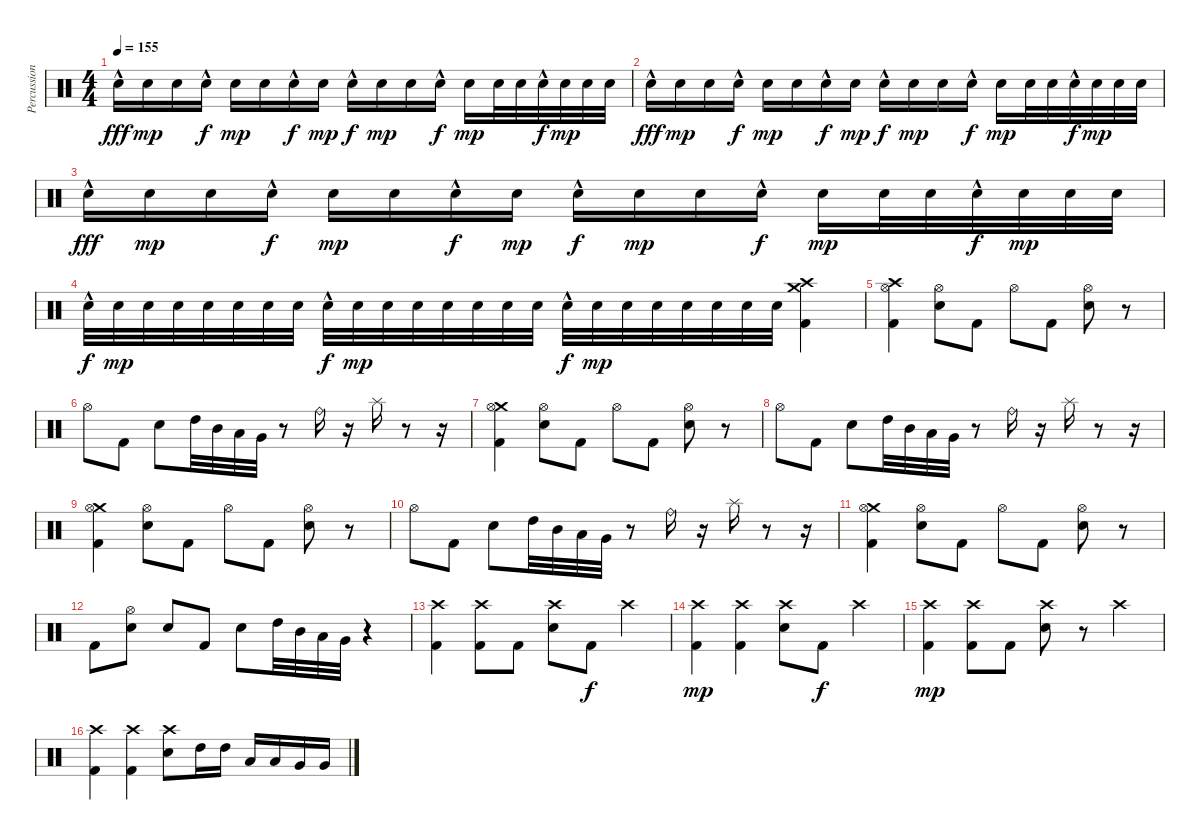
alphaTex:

\track ("Percussion" "Percussion") {instrument percussion}
\staff {score}
\articulation defaults
\ts (4 4)
\tempo 155
\clef neutral
\ks c "Snare (hit) 2"{hac}.16{dy fff} "Snare (hit) 2".16{dy mp} "Snare (hit) 2".16 "Snare (hit) 2"{hac}.16{dy f} "Snare (hit) 2".16{dy mp} "Snare (hit) 2".16 "Snare (hit) 2"{hac}.16{dy f} "Snare (hit) 2".16{dy mp} "Snare (hit) 2"{hac}.16{dy f} "Snare (hit) 2".16{dy mp} "Snare (hit) 2".16 "Snare (hit) 2"{hac}.16{dy f} "Snare (hit) 2".16{dy mp} "Snare (hit) 2".32 "Snare (hit) 2".32 "Snare (hit) 2"{hac}.32{dy f} "Snare (hit) 2".32{dy mp} "Snare (hit) 2".32 "Snare (hit) 2".32
|
"Snare (hit) 2"{hac}.16{dy fff} "Snare (hit) 2".16{dy mp} "Snare (hit) 2".16 "Snare (hit) 2"{hac}.16{dy f} "Snare (hit) 2".16{dy mp} "Snare (hit) 2".16 "Snare (hit) 2"{hac}.16{dy f} "Snare (hit) 2".16{dy mp} "Snare (hit) 2"{hac}.16{dy f} "Snare (hit) 2".16{dy mp} "Snare (hit) 2".16 "Snare (hit) 2"{hac}.16{dy f} "Snare (hit) 2".16{dy mp} "Snare (hit) 2".32 "Snare (hit) 2".32 "Snare (hit) 2"{hac}.32{dy f} "Snare (hit) 2".32{dy mp} "Snare (hit) 2".32 "Snare (hit) 2".32 |
"Snare (hit) 2"{hac}.16{dy fff} "Snare (hit) 2".16{dy mp} "Snare (hit) 2".16 "Snare (hit) 2"{hac}.16{dy f} "Snare (hit) 2".16{dy mp} "Snare (hit) 2".16 "Snare (hit) 2"{hac}.16{dy f} "Snare (hit) 2".16{dy mp} "Snare (hit) 2"{hac}.16{dy f} "Snare (hit) 2".16{dy mp} "Snare (hit) 2".16 "Snare (hit) 2"{hac}.16{dy f} "Snare (hit) 2".16{dy mp} "Snare (hit) 2".32 "Snare (hit) 2".32 "Snare (hit) 2"{hac}.32{dy f} "Snare (hit) 2".32{dy mp} "Snare (hit) 2".32 "Snare (hit) 2".32 |
"Snare (hit) 2"{hac}.32{dy f} "Snare (hit) 2".32{dy mp} "Snare (hit) 2".32 "Snare (hit) 2".32 "Snare (hit) 2".32 "Snare (hit) 2".32 "Snare (hit) 2".32 "Snare (hit) 2".32 "Snare (hit) 2"{hac}.32{dy f} "Snare (hit) 2".32{dy mp} "Snare (hit) 2".32 "Snare (hit) 2".32 "Snare (hit) 2".32 "Snare (hit) 2".32 "Snare (hit) 2".32 "Snare (hit) 2".32 "Snare (hit) 2"{hac}.32{dy f} "Snare (hit) 2".32{dy mp} "Snare (hit) 2".32 "Snare (hit) 2".32 "Snare (hit) 2".32 "Snare (hit) 2".32 "Snare (hit) 2".32 "Snare (hit) 2".32 ("Crash high (hit)" "Crash medium (hit)" "Kick (hit) 2").4 |
("Crash high (hit)" "Hi-Hat (open)" "Kick (hit) 2").4 ("Hi-Hat (open)" "Snare (hit) 2").8 "Kick (hit) 2".8 "Hi-Hat (open)".8 "Kick (hit) 2".8 ("Hi-Hat (open)" "Snare (hit) 2").8 r.8 |
"Hi-Hat (open)".8 "Kick (hit) 2".8 "Snare (hit) 2".8 "High Tom (hit)".32 "Mid Tom (hit)".32 "Low Tom (hit)".32 "Very Low Tom (hit)".32 r.8 "Ride (bell)".16 r.16 "Splash (hit)".16 r.8 r.16 |
("Crash medium (hit)" "Hi-Hat (open)" "Kick (hit) 2").4 ("Hi-Hat (open)" "Snare (hit) 2").8 "Kick (hit) 2".8 "Hi-Hat (open)".8 "Kick (hit) 2".8 ("Hi-Hat (open)" "Snare (hit) 2").8 r.8 |
"Hi-Hat (open)".8 "Kick (hit) 2".8 "Snare (hit) 2".8 "High Tom (hit)".32 "Mid Tom (hit)".32 "Low Tom (hit)".32 "Very Low Tom (hit)".32 r.8 "Ride (bell)".16 r.16 "Splash (hit)".16 r.8 r.16 |
("Crash medium (hit)" "Hi-Hat (open)" "Kick (hit) 2").4 ("Hi-Hat (open)" "Snare (hit) 2").8 "Kick (hit) 2".8 "Hi-Hat (open)".8 "Kick (hit) 2".8 ("Hi-Hat (open)" "Snare (hit) 2").8 r.8 |
"Hi-Hat (open)".8 "Kick (hit) 2".8 "Snare (hit) 2".8 "High Tom (hit)".32 "Mid Tom (hit)".32 "Low Tom (hit)".32 "Very Low Tom (hit)".32 r.8 "Ride (bell)".16 r.16 "Splash (hit)".16 r.8 r.16 |
("Crash medium (hit)" "Hi-Hat (open)" "Kick (hit) 2").4 ("Hi-Hat (open)" "Snare (hit) 2").8 "Kick (hit) 2".8 "Hi-Hat (open)".8 "Kick (hit) 2".8 ("Hi-Hat (open)" "Snare (hit) 2").8 r.8 |
"Kick (hit) 2".8 ("Hi-Hat (open)" "Snare (hit) 2").8 "Snare (hit) 2".8 "Kick (hit) 2".8 "Snare (hit) 2".8 "High Tom (hit)".32 "Mid Tom (hit)".32 "Low Tom (hit)".32 "Very Low Tom (hit)".32 r.4 |
("Crash high (hit)" "Kick (hit) 2").4 ("Crash high (hit)" "Kick (hit) 2").8 "Kick (hit) 2".8 ("Crash high (hit)" "Snare (hit) 2").8 "Kick (hit) 2".8{dy f} "Crash high (hit)".4 |
("Crash high (hit)" "Kick (hit) 2").4{dy mp} ("Crash high (hit)" "Kick (hit) 2").4 ("Crash high (hit)" "Snare (hit) 2").8 "Kick (hit) 2".8{dy f} "Crash high (hit)".4 |
("Crash high (hit)" "Kick (hit) 2").4{dy mp} ("Crash high (hit)" "Kick (hit) 2").8 "Kick (hit) 2".8 ("Crash high (hit)" "Snare (hit) 2").8 r.8 "Crash high (hit)".4 |
("Crash high (hit)" "Kick (hit) 2").4 ("Crash high (hit)" "Kick (hit) 2").4 ("Crash high (hit)" "Snare (hit) 2").8 "High Tom (hit)".16 "High Tom (hit)".16 "Low Tom (hit)".16 "Low Tom (hit)".16 "Very Low Tom (hit)".16 "Very Low Tom (hit)".16
